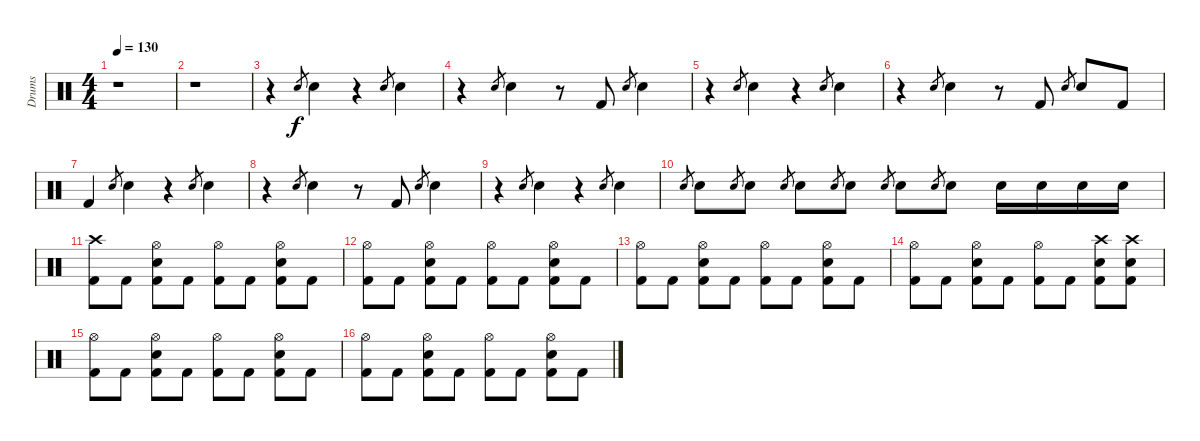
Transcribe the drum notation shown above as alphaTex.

\track ("Drums" "Drums") {instrument percussion}
\staff {score}
\articulation defaults
\ts (4 4)
\tempo 130
\clef neutral
\ks c
r.1{dy f} |
r.1 |
r.4 "Electric Snare (hit)".8{gr} "Electric Snare (hit)".4 r.4 "Electric Snare (hit)".8{gr} "Electric Snare (hit)".4 |
r.4 "Electric Snare (hit)".8{gr} "Electric Snare (hit)".4 r.8 "Kick (hit) 2".8 "Electric Snare (hit)".8{gr} "Electric Snare (hit)".4 |
r.4 "Electric Snare (hit)".8{gr} "Electric Snare (hit)".4 r.4 "Electric Snare (hit)".8{gr} "Electric Snare (hit)".4 |
r.4 "Electric Snare (hit)".8{gr} "Electric Snare (hit)".4 r.8 "Kick (hit) 2".8 "Electric Snare (hit)".8{gr} "Electric Snare (hit)".8 "Kick (hit) 2".8 |
"Kick (hit) 2".4 "Electric Snare (hit)".8{gr} "Electric Snare (hit)".4 r.4 "Electric Snare (hit)".8{gr} "Electric Snare (hit)".4 |
r.4 "Electric Snare (hit)".8{gr} "Electric Snare (hit)".4 r.8 "Kick (hit) 2".8 "Electric Snare (hit)".8{gr} "Electric Snare (hit)".4 |
r.4 "Electric Snare (hit)".8{gr} "Electric Snare (hit)".4 r.4 "Electric Snare (hit)".8{gr} "Electric Snare (hit)".4 |
"Electric Snare (hit)".8{gr} "Electric Snare (hit)".8 "Electric Snare (hit)".8{gr} "Electric Snare (hit)".8 "Electric Snare (hit)".8{gr} "Electric Snare (hit)".8 "Electric Snare (hit)".8{gr} "Electric Snare (hit)".8 "Electric Snare (hit)".8{gr} "Electric Snare (hit)".8 "Electric Snare (hit)".8{gr} "Electric Snare (hit)".8 "Electric Snare (hit)".16 "Electric Snare (hit)".16 "Electric Snare (hit)".16 "Electric Snare (hit)".16 |
("Crash high (hit)" "Kick (hit) 2").8 "Kick (hit) 2".8 ("Hi-Hat (open)" "Electric Snare (hit)" "Kick (hit) 2").8 "Kick (hit) 2".8 ("Hi-Hat (open)" "Kick (hit) 2").8 "Kick (hit) 2".8 ("Hi-Hat (open)" "Electric Snare (hit)" "Kick (hit) 2").8 "Kick (hit) 2".8 |
("Hi-Hat (open)" "Kick (hit) 2").8 "Kick (hit) 2".8 ("Hi-Hat (open)" "Electric Snare (hit)" "Kick (hit) 2").8 "Kick (hit) 2".8 ("Hi-Hat (open)" "Kick (hit) 2").8 "Kick (hit) 2".8 ("Hi-Hat (open)" "Electric Snare (hit)" "Kick (hit) 2").8 "Kick (hit) 2".8 |
("Hi-Hat (open)" "Kick (hit) 2").8 "Kick (hit) 2".8 ("Hi-Hat (open)" "Electric Snare (hit)" "Kick (hit) 2").8 "Kick (hit) 2".8 ("Hi-Hat (open)" "Kick (hit) 2").8 "Kick (hit) 2".8 ("Hi-Hat (open)" "Electric Snare (hit)" "Kick (hit) 2").8 "Kick (hit) 2".8 |
("Hi-Hat (open)" "Kick (hit) 2").8 "Kick (hit) 2".8 ("Hi-Hat (open)" "Electric Snare (hit)" "Kick (hit) 2").8 "Kick (hit) 2".8 ("Hi-Hat (open)" "Kick (hit) 2").8 "Kick (hit) 2".8 ("Crash high (hit)" "Electric Snare (hit)" "Kick (hit) 2").8 ("Crash high (hit)" "Electric Snare (hit)" "Kick (hit) 2").8 |
("Hi-Hat (open)" "Kick (hit) 2").8 "Kick (hit) 2".8 ("Hi-Hat (open)" "Electric Snare (hit)" "Kick (hit) 2").8 "Kick (hit) 2".8 ("Hi-Hat (open)" "Kick (hit) 2").8 "Kick (hit) 2".8 ("Hi-Hat (open)" "Electric Snare (hit)" "Kick (hit) 2").8 "Kick (hit) 2".8 |
("Hi-Hat (open)" "Kick (hit) 2").8 "Kick (hit) 2".8 ("Hi-Hat (open)" "Electric Snare (hit)" "Kick (hit) 2").8 "Kick (hit) 2".8 ("Hi-Hat (open)" "Kick (hit) 2").8 "Kick (hit) 2".8 ("Hi-Hat (open)" "Electric Snare (hit)" "Kick (hit) 2").8 "Kick (hit) 2".8
